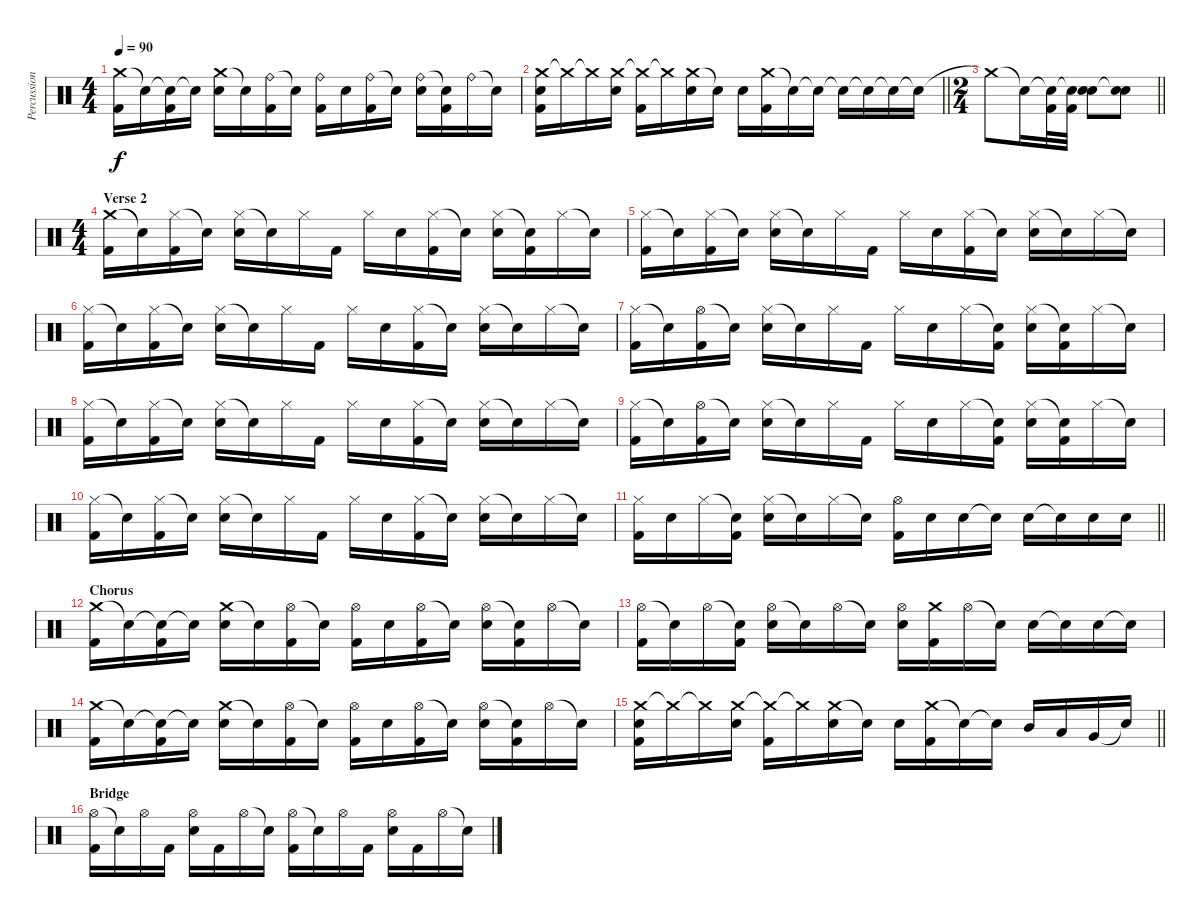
\track ("Percussion" "Percussion") {instrument percussion}
\staff {score}
\articulation defaults
\ts (4 4)
\tempo 90
\clef neutral
\ks c
("Crash medium (hit)" "Kick (hit) 2").16{dy f} "Snare (hit)"{t}.16 ("Snare (hit)"{t} "Kick (hit) 2").16 "Snare (hit)"{t}.16 ("Crash medium (hit)" "Snare (hit) 2").16 "Snare (hit)"{t}.16 ("Ride (bell)" "Kick (hit) 2").16 "Snare (hit)"{t}.16 ("Ride (bell)" "Kick (hit) 2").16 "Snare (hit) 2".16 ("Ride (bell)" "Kick (hit) 2").16 "Snare (hit)"{t}.16 ("Ride (bell)" "Snare (hit) 2").16 ("Snare (hit)"{t} "Kick (hit) 2").16 "Ride (bell)".16 "Snare (hit)"{t}.16 |
\barLineRight lightlight
("Crash medium (hit)" "Snare (hit) 2" "Kick (hit) 2").16 "Crash medium (hit)"{t}.16 "Crash medium (hit)"{t}.16 ("Crash medium (hit)" "Snare (hit) 2").16 ("Crash medium (hit)"{t} "Kick (hit) 2").16 "Crash medium (hit)"{t}.16 ("Crash medium (hit)" "Snare (hit) 2").16 "Snare (hit)"{t}.16 "Snare (hit) 2".16 ("Crash medium (hit)" "Kick (hit) 2").16 "Snare (hit)"{t}.16 "Snare (hit)"{t}.16 "Snare (hit)"{t}.16 "Snare (hit)"{t}.16 "Snare (hit)"{t}.16 "Snare (hit)"{t}.16 |
\ts (2 4)
\barLineRight lightlight "Crash medium (hit)"{t}.8 "Snare (hit)"{t}.16
("Snare (hit)"{t} "Kick (hit) 2").32 ("Snare (hit)"{t} "Kick (hit) 2").32 ("Snare (hit)"{t} "Snare (hit) 2").8 ("Snare (hit)"{t} "Snare (hit) 2").8 |
\ts (4 4)
\section ("" "Verse 2")
("Crash medium (hit)" "Kick (hit) 2").16 "Snare (hit)"{t}.16 ("Hi-Hat (closed)" "Kick (hit) 2").16 "Snare (hit)"{t}.16 ("Hi-Hat (closed)" "Snare (hit) 2").16 "Snare (hit)"{t}.16 "Hi-Hat (closed)".16 "Kick (hit) 2".16 "Hi-Hat (closed)".16 "Snare (hit) 2".16 ("Hi-Hat (closed)" "Kick (hit) 2").16 "Snare (hit)"{t}.16 ("Hi-Hat (closed)" "Snare (hit) 2").16 ("Snare (hit)"{t} "Kick (hit) 2").16 "Hi-Hat (closed)".16 "Snare (hit)"{t}.16 |
("Hi-Hat (closed)" "Kick (hit) 2").16 "Snare (hit)"{t}.16 ("Hi-Hat (closed)" "Kick (hit) 2").16 "Snare (hit)"{t}.16 ("Hi-Hat (closed)" "Snare (hit) 2").16 "Snare (hit)"{t}.16 "Hi-Hat (closed)".16 "Kick (hit) 2".16 "Hi-Hat (closed)".16 "Snare (hit) 2".16 ("Hi-Hat (closed)" "Kick (hit) 2").16 "Snare (hit)"{t}.16 ("Hi-Hat (closed)" "Snare (hit) 2").16 "Snare (hit)"{t}.16 "Hi-Hat (closed)".16 "Snare (hit)"{t}.16 |
("Hi-Hat (closed)" "Kick (hit) 2").16 "Snare (hit)"{t}.16 ("Hi-Hat (closed)" "Kick (hit) 2").16 "Snare (hit)"{t}.16 ("Hi-Hat (closed)" "Snare (hit) 2").16 "Snare (hit)"{t}.16 "Hi-Hat (closed)".16 "Kick (hit) 2".16 "Hi-Hat (closed)".16 "Snare (hit) 2".16 ("Hi-Hat (closed)" "Kick (hit) 2").16 "Snare (hit)"{t}.16 ("Hi-Hat (closed)" "Snare (hit) 2").16 "Snare (hit)"{t}.16 "Hi-Hat (closed)".16 "Snare (hit)"{t}.16 |
("Hi-Hat (closed)" "Kick (hit) 2").16 "Snare (hit)"{t}.16 ("Hi-Hat (open)" "Kick (hit) 2").16 "Snare (hit)"{t}.16 ("Hi-Hat (closed)" "Snare (hit) 2").16 "Snare (hit)"{t}.16 "Hi-Hat (closed)".16 "Kick (hit) 2".16 "Hi-Hat (closed)".16 "Snare (hit) 2".16 "Hi-Hat (closed)".16 ("Snare (hit)"{t} "Kick (hit) 2").16 ("Hi-Hat (closed)" "Snare (hit) 2").16 ("Snare (hit)"{t} "Kick (hit) 2").16 "Hi-Hat (closed)".16 "Snare (hit)"{t}.16 |
("Hi-Hat (closed)" "Kick (hit) 2").16 "Snare (hit)"{t}.16 ("Hi-Hat (closed)" "Kick (hit) 2").16 "Snare (hit)"{t}.16 ("Hi-Hat (closed)" "Snare (hit) 2").16 "Snare (hit)"{t}.16 "Hi-Hat (closed)".16 "Kick (hit) 2".16 "Hi-Hat (closed)".16 "Snare (hit) 2".16 ("Hi-Hat (closed)" "Kick (hit) 2").16 "Snare (hit)"{t}.16 ("Hi-Hat (closed)" "Snare (hit) 2").16 "Snare (hit)"{t}.16 "Hi-Hat (closed)".16 "Snare (hit)"{t}.16 |
("Hi-Hat (closed)" "Kick (hit) 2").16 "Snare (hit)"{t}.16 ("Hi-Hat (open)" "Kick (hit) 2").16 "Snare (hit)"{t}.16 ("Hi-Hat (closed)" "Snare (hit) 2").16 "Snare (hit)"{t}.16 "Hi-Hat (closed)".16 "Kick (hit) 2".16 "Hi-Hat (closed)".16 "Snare (hit) 2".16 "Hi-Hat (closed)".16 ("Snare (hit)"{t} "Kick (hit) 2").16 ("Hi-Hat (closed)" "Snare (hit) 2").16 ("Snare (hit)"{t} "Kick (hit) 2").16 "Hi-Hat (closed)".16 "Snare (hit)"{t}.16 |
("Hi-Hat (closed)" "Kick (hit) 2").16 "Snare (hit)"{t}.16 ("Hi-Hat (closed)" "Kick (hit) 2").16 "Snare (hit)"{t}.16 ("Hi-Hat (closed)" "Snare (hit) 2").16 "Snare (hit)"{t}.16 "Hi-Hat (closed)".16 "Kick (hit) 2".16 "Hi-Hat (closed)".16 "Snare (hit) 2".16 ("Hi-Hat (closed)" "Kick (hit) 2").16 "Snare (hit)"{t}.16 ("Hi-Hat (closed)" "Snare (hit) 2").16 "Snare (hit)"{t}.16 "Hi-Hat (closed)".16 "Snare (hit)"{t}.16 |
\barLineRight lightlight
("Hi-Hat (closed)" "Kick (hit) 2").16 "Snare (hit) 2".16 "Hi-Hat (closed)".16 ("Snare (hit)"{t} "Kick (hit) 2").16 ("Hi-Hat (closed)" "Snare (hit) 2").16 "Snare (hit)"{t}.16 "Hi-Hat (closed)".16 "Snare (hit)"{t}.16 ("Hi-Hat (open)" "Kick (hit) 2").16 "Snare (hit) 2".16 "Snare (hit) 2".16 "Snare (hit)"{t}.16 "Snare (hit) 2".16 "Snare (hit) 2"{t}.16 "Snare (hit) 2".16 "Snare (hit) 2".16 |
\section ("" "Chorus")
("Crash medium (hit)" "Kick (hit) 2").16 "Snare (hit)"{t}.16 ("Snare (hit)"{t} "Kick (hit) 2").16 "Snare (hit)"{t}.16 ("Crash medium (hit)" "Snare (hit) 2").16 "Snare (hit)"{t}.16 ("Hi-Hat (open)" "Kick (hit) 2").16 "Snare (hit)"{t}.16 ("Hi-Hat (open)" "Kick (hit) 2").16 "Snare (hit) 2".16 ("Hi-Hat (open)" "Kick (hit) 2").16 "Snare (hit)"{t}.16 ("Hi-Hat (open)" "Snare (hit) 2").16 ("Snare (hit)"{t} "Kick (hit) 2").16 "Hi-Hat (open)".16 "Snare (hit)"{t}.16 |
("Hi-Hat (open)" "Kick (hit) 2").16 "Snare (hit)"{t}.16 "Hi-Hat (open)".16 ("Snare (hit)"{t} "Kick (hit) 2").16 ("Hi-Hat (open)" "Snare (hit) 2").16 "Snare (hit)"{t}.16 "Hi-Hat (open)".16 "Snare (hit)"{t}.16 ("Hi-Hat (open)" "Snare (hit) 2").16 ("Crash medium (hit)" "Kick (hit) 2").16 "Hi-Hat (open)".16 "Snare (hit)"{t}.16 "Snare (hit) 2".16 "Snare (hit)"{t}.16 "Snare (hit) 2".16 "Snare (hit)"{t}.16 |
("Crash medium (hit)" "Kick (hit) 2").16 "Snare (hit)"{t}.16 ("Snare (hit)"{t} "Kick (hit) 2").16 "Snare (hit)"{t}.16 ("Crash medium (hit)" "Snare (hit) 2").16 "Snare (hit)"{t}.16 ("Hi-Hat (open)" "Kick (hit) 2").16 "Snare (hit)"{t}.16 ("Hi-Hat (open)" "Kick (hit) 2").16 "Snare (hit) 2".16 ("Hi-Hat (open)" "Kick (hit) 2").16 "Snare (hit)"{t}.16 ("Hi-Hat (open)" "Snare (hit) 2").16 ("Snare (hit)"{t} "Kick (hit) 2").16 "Hi-Hat (open)".16 "Snare (hit)"{t}.16 |
\barLineRight lightlight
("Crash medium (hit)" "Snare (hit) 2" "Kick (hit) 2").16 "Crash medium (hit)"{t}.16 "Crash medium (hit)"{t}.16 ("Crash medium (hit)" "Snare (hit) 2").16 ("Crash medium (hit)"{t} "Kick (hit) 2").16 "Crash medium (hit)"{t}.16 ("Crash medium (hit)" "Snare (hit) 2").16 "Snare (hit)"{t}.16 "Snare (hit) 2".16 ("Crash medium (hit)" "Kick (hit) 2").16 "Snare (hit)"{t}.16 "Snare (hit)"{t}.16 "Mid Tom (hit)".16 "Low Tom (hit)".16 "Very Low Tom (hit)".16 "Snare (hit)"{t}.16 |
\section ("" "Bridge")
("Hi-Hat (open)" "Kick (hit) 2").16 "Snare (hit)"{t}.16 "Hi-Hat (open)".16 "Kick (hit) 2".16 ("Hi-Hat (open)" "Snare (hit) 2").16 "Kick (hit) 2".16 "Hi-Hat (open)".16 "Snare (hit)"{t}.16 ("Hi-Hat (open)" "Kick (hit) 2").16 "Snare (hit)"{t}.16 "Hi-Hat (open)".16 "Kick (hit) 2".16 ("Hi-Hat (open)" "Snare (hit) 2").16 "Kick (hit) 2".16 "Hi-Hat (open)".16 "Snare (hit)"{t}.16
